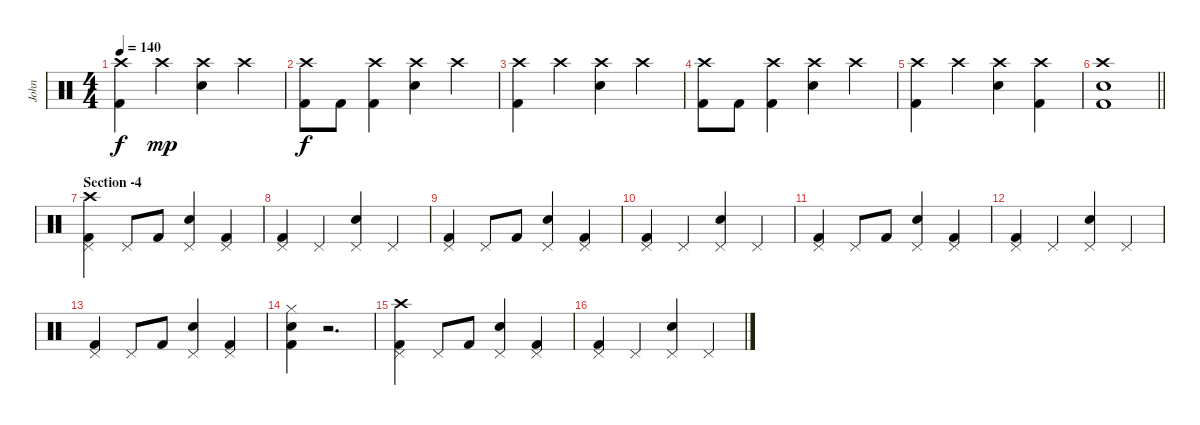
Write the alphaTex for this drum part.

\track ("John" "John") {instrument percussion}
\staff {score}
\articulation defaults
\ts (4 4)
\tempo 140
\clef neutral
\ks c
("Crash high (hit)" "Kick (hit) 2").4{dy f} "Crash high (hit)".4{dy mp} ("Crash high (hit)" "Electric Snare (hit)").4 "Crash high (hit)".4 |
("Crash high (hit)" "Kick (hit) 2").8{dy f} "Kick (hit) 2".8 ("Crash high (hit)" "Kick (hit) 2").4 ("Crash high (hit)" "Electric Snare (hit)").4 "Crash high (hit)".4 |
("Crash high (hit)" "Kick (hit) 2").4 "Crash high (hit)".4 ("Crash high (hit)" "Electric Snare (hit)").4 "Crash high (hit)".4 |
("Crash high (hit)" "Kick (hit) 2").8 "Kick (hit) 2".8 ("Crash high (hit)" "Kick (hit) 2").4 ("Crash high (hit)" "Electric Snare (hit)").4 "Crash high (hit)".4 |
("Crash high (hit)" "Kick (hit) 2").4 "Crash high (hit)".4 ("Crash high (hit)" "Electric Snare (hit)").4 ("Crash high (hit)" "Kick (hit) 2").4 |
\barLineRight lightlight
("Crash high (hit)" "Electric Snare (hit)" "Kick (hit) 2").1 |
\section ("" "Section -4")
("Crash high (hit)" "Pedal Hi-Hat (hit)" "Kick (hit) 2").4 "Pedal Hi-Hat (hit)".8 "Kick (hit) 2".8 ("Pedal Hi-Hat (hit)" "Electric Snare (hit)").4 ("Pedal Hi-Hat (hit)" "Kick (hit) 2").4 |
("Pedal Hi-Hat (hit)" "Kick (hit) 2").4 "Pedal Hi-Hat (hit)".4 ("Pedal Hi-Hat (hit)" "Electric Snare (hit)").4 "Pedal Hi-Hat (hit)".4 |
("Pedal Hi-Hat (hit)" "Kick (hit) 2").4 "Pedal Hi-Hat (hit)".8 "Kick (hit) 2".8 ("Pedal Hi-Hat (hit)" "Electric Snare (hit)").4 ("Pedal Hi-Hat (hit)" "Kick (hit) 2").4 |
("Pedal Hi-Hat (hit)" "Kick (hit) 2").4 "Pedal Hi-Hat (hit)".4 ("Pedal Hi-Hat (hit)" "Electric Snare (hit)").4 "Pedal Hi-Hat (hit)".4 |
("Pedal Hi-Hat (hit)" "Kick (hit) 2").4 "Pedal Hi-Hat (hit)".8 "Kick (hit) 2".8 ("Pedal Hi-Hat (hit)" "Electric Snare (hit)").4 ("Pedal Hi-Hat (hit)" "Kick (hit) 2").4 |
("Pedal Hi-Hat (hit)" "Kick (hit) 2").4 "Pedal Hi-Hat (hit)".4 ("Pedal Hi-Hat (hit)" "Electric Snare (hit)").4 "Pedal Hi-Hat (hit)".4 |
("Pedal Hi-Hat (hit)" "Kick (hit) 2").4 "Pedal Hi-Hat (hit)".8 "Kick (hit) 2".8 ("Pedal Hi-Hat (hit)" "Electric Snare (hit)").4 ("Pedal Hi-Hat (hit)" "Kick (hit) 2").4 |
("Hi-Hat (closed)" "Electric Snare (hit)" "Kick (hit) 2").4 r.2{d} |
("Crash high (hit)" "Pedal Hi-Hat (hit)" "Kick (hit) 2").4 "Pedal Hi-Hat (hit)".8 "Kick (hit) 2".8 ("Pedal Hi-Hat (hit)" "Electric Snare (hit)").4 ("Pedal Hi-Hat (hit)" "Kick (hit) 2").4 |
("Pedal Hi-Hat (hit)" "Kick (hit) 2").4 "Pedal Hi-Hat (hit)".4 ("Pedal Hi-Hat (hit)" "Electric Snare (hit)").4 "Pedal Hi-Hat (hit)".4
